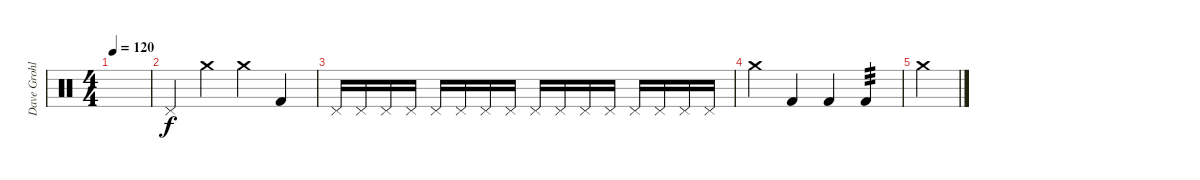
\track ("Dave Grohl" "Dave Grohl") {instrument percussion}
\staff {score}
\articulation defaults
\ts (4 4)
\tempo 120
\clef neutral
\ks c
|
"Pedal Hi-Hat (hit)".4 "Crash medium (hit)".4 "Crash medium (hit)".4 "Kick (hit) 2".4 |
"Pedal Hi-Hat (hit)".16 "Pedal Hi-Hat (hit)".16 "Pedal Hi-Hat (hit)".16 "Pedal Hi-Hat (hit)".16 "Pedal Hi-Hat (hit)".16 "Pedal Hi-Hat (hit)".16 "Pedal Hi-Hat (hit)".16 "Pedal Hi-Hat (hit)".16 "Pedal Hi-Hat (hit)".16 "Pedal Hi-Hat (hit)".16 "Pedal Hi-Hat (hit)".16 "Pedal Hi-Hat (hit)".16 "Pedal Hi-Hat (hit)".16 "Pedal Hi-Hat (hit)".16 "Pedal Hi-Hat (hit)".16 "Pedal Hi-Hat (hit)".16 |
"Crash medium (hit)".4 "Kick (hit) 2".4 "Kick (hit) 2".4 "Kick (hit) 2".4{tp 3} |
"Crash medium (hit)".4
